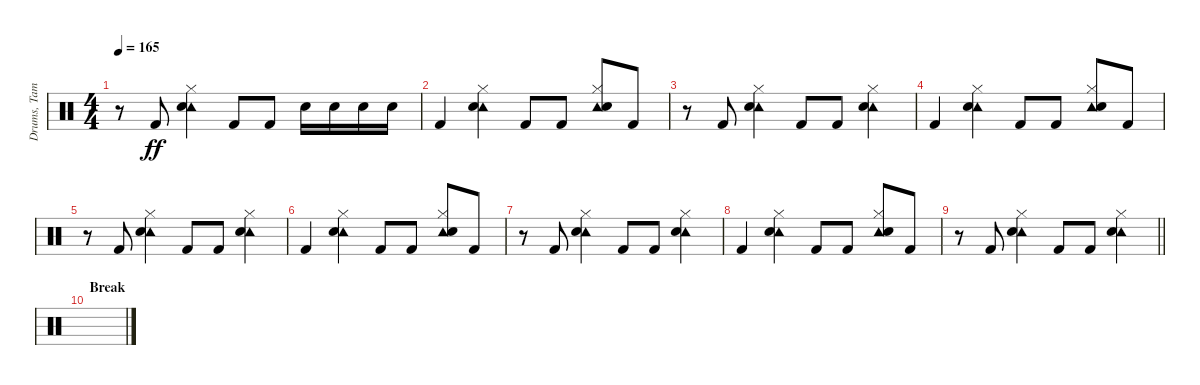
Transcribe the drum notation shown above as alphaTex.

\track ("Drums, Tambourine, Castinets" "Drums, Tam") {instrument percussion}
\staff {score}
\articulation defaults
\ts (4 4)
\tempo 165
\clef neutral
\ks c
r.8{dy ff} "Kick (hit) 2".8 ("Tambourine (hit)" "Hi-Hat (closed)" "Snare (hit) 2").4 "Kick (hit) 2".8 "Kick (hit) 2".8 "Snare (hit) 2".16 "Snare (hit) 2".16 "Snare (hit) 2".16 "Snare (hit) 2".16 |
"Kick (hit) 2".4 ("Tambourine (hit)" "Hi-Hat (closed)" "Snare (hit) 2").4 "Kick (hit) 2".8 "Kick (hit) 2".8 ("Tambourine (hit)" "Hi-Hat (closed)" "Snare (hit) 2").8 "Kick (hit) 2".8 |
r.8 "Kick (hit) 2".8 ("Tambourine (hit)" "Hi-Hat (closed)" "Snare (hit) 2").4 "Kick (hit) 2".8 "Kick (hit) 2".8 ("Tambourine (hit)" "Hi-Hat (closed)" "Snare (hit) 2").4 |
"Kick (hit) 2".4 ("Tambourine (hit)" "Hi-Hat (closed)" "Snare (hit) 2").4 "Kick (hit) 2".8 "Kick (hit) 2".8 ("Tambourine (hit)" "Hi-Hat (closed)" "Snare (hit) 2").8 "Kick (hit) 2".8 |
r.8 "Kick (hit) 2".8 ("Tambourine (hit)" "Hi-Hat (closed)" "Snare (hit) 2").4 "Kick (hit) 2".8 "Kick (hit) 2".8 ("Tambourine (hit)" "Hi-Hat (closed)" "Snare (hit) 2").4 |
"Kick (hit) 2".4 ("Tambourine (hit)" "Hi-Hat (closed)" "Snare (hit) 2").4 "Kick (hit) 2".8 "Kick (hit) 2".8 ("Tambourine (hit)" "Hi-Hat (closed)" "Snare (hit) 2").8 "Kick (hit) 2".8 |
r.8 "Kick (hit) 2".8 ("Tambourine (hit)" "Hi-Hat (closed)" "Snare (hit) 2").4 "Kick (hit) 2".8 "Kick (hit) 2".8 ("Tambourine (hit)" "Hi-Hat (closed)" "Snare (hit) 2").4 |
"Kick (hit) 2".4 ("Tambourine (hit)" "Hi-Hat (closed)" "Snare (hit) 2").4 "Kick (hit) 2".8 "Kick (hit) 2".8 ("Tambourine (hit)" "Hi-Hat (closed)" "Snare (hit) 2").8 "Kick (hit) 2".8 |
\barLineRight lightlight
r.8 "Kick (hit) 2".8 ("Tambourine (hit)" "Hi-Hat (closed)" "Snare (hit) 2").4 "Kick (hit) 2".8 "Kick (hit) 2".8 ("Tambourine (hit)" "Hi-Hat (closed)" "Snare (hit) 2").4 |
\section ("" "Break")
